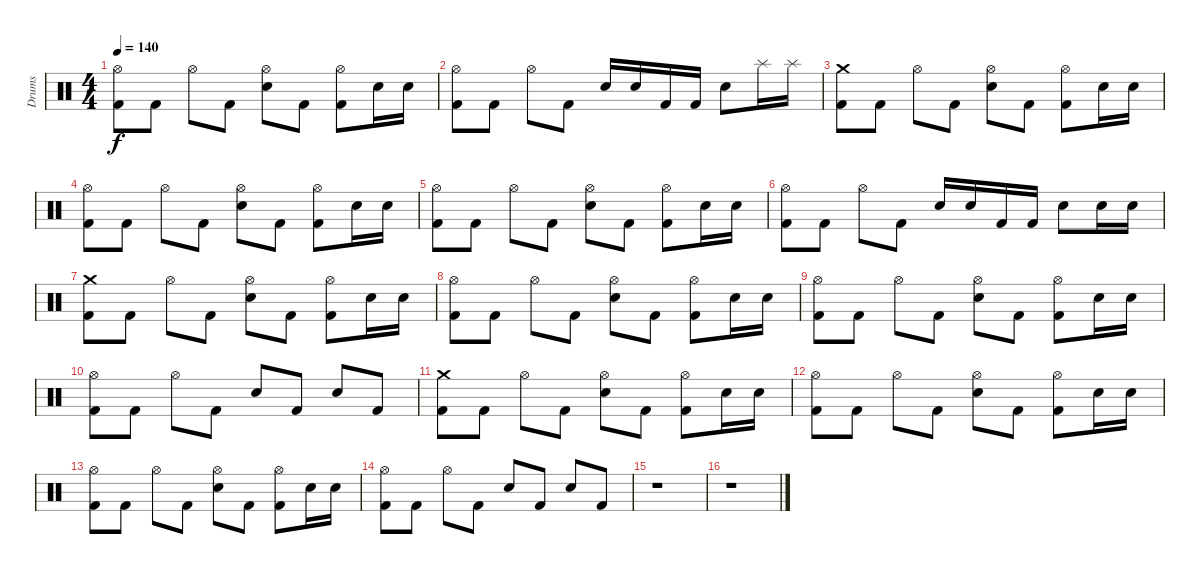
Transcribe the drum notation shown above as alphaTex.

\track ("Drums" "Drums") {instrument percussion}
\staff {score}
\articulation defaults
\ts (4 4)
\tempo 140
\clef neutral
\ks c
("Hi-Hat (open)" "Kick (hit) 2").8{dy f} "Kick (hit) 2".8 "Hi-Hat (open)".8 "Kick (hit) 2".8 ("Hi-Hat (open)" "Electric Snare (hit)").8 "Kick (hit) 2".8 ("Hi-Hat (open)" "Kick (hit) 2").8 "Electric Snare (hit)".16 "Electric Snare (hit)".16 |
("Hi-Hat (open)" "Kick (hit) 2").8 "Kick (hit) 2".8 "Hi-Hat (open)".8 "Kick (hit) 2".8 "Electric Snare (hit)".16 "Electric Snare (hit)".16 "Kick (hit) 2".16 "Kick (hit) 2".16 "Electric Snare (hit)".8 "Splash (hit)".16 "Splash (hit)".16 |
("Crash medium (hit)" "Kick (hit) 2").8 "Kick (hit) 2".8 "Hi-Hat (open)".8 "Kick (hit) 2".8 ("Hi-Hat (open)" "Electric Snare (hit)").8 "Kick (hit) 2".8 ("Hi-Hat (open)" "Kick (hit) 2").8 "Electric Snare (hit)".16 "Electric Snare (hit)".16 |
("Hi-Hat (open)" "Kick (hit) 2").8 "Kick (hit) 2".8 "Hi-Hat (open)".8 "Kick (hit) 2".8 ("Hi-Hat (open)" "Electric Snare (hit)").8 "Kick (hit) 2".8 ("Hi-Hat (open)" "Kick (hit) 2").8 "Electric Snare (hit)".16 "Electric Snare (hit)".16 |
("Hi-Hat (open)" "Kick (hit) 2").8 "Kick (hit) 2".8 "Hi-Hat (open)".8 "Kick (hit) 2".8 ("Hi-Hat (open)" "Electric Snare (hit)").8 "Kick (hit) 2".8 ("Hi-Hat (open)" "Kick (hit) 2").8 "Electric Snare (hit)".16 "Electric Snare (hit)".16 |
("Hi-Hat (open)" "Kick (hit) 2").8 "Kick (hit) 2".8 "Hi-Hat (open)".8 "Kick (hit) 2".8 "Electric Snare (hit)".16 "Electric Snare (hit)".16 "Kick (hit) 2".16 "Kick (hit) 2".16 "Electric Snare (hit)".8 "Electric Snare (hit)".16 "Electric Snare (hit)".16 |
("Crash medium (hit)" "Kick (hit) 2").8 "Kick (hit) 2".8 "Hi-Hat (open)".8 "Kick (hit) 2".8 ("Hi-Hat (open)" "Electric Snare (hit)").8 "Kick (hit) 2".8 ("Hi-Hat (open)" "Kick (hit) 2").8 "Electric Snare (hit)".16 "Electric Snare (hit)".16 |
("Hi-Hat (open)" "Kick (hit) 2").8 "Kick (hit) 2".8 "Hi-Hat (open)".8 "Kick (hit) 2".8 ("Hi-Hat (open)" "Electric Snare (hit)").8 "Kick (hit) 2".8 ("Hi-Hat (open)" "Kick (hit) 2").8 "Electric Snare (hit)".16 "Electric Snare (hit)".16 |
("Hi-Hat (open)" "Kick (hit) 2").8 "Kick (hit) 2".8 "Hi-Hat (open)".8 "Kick (hit) 2".8 ("Hi-Hat (open)" "Electric Snare (hit)").8 "Kick (hit) 2".8 ("Hi-Hat (open)" "Kick (hit) 2").8 "Electric Snare (hit)".16 "Electric Snare (hit)".16 |
("Hi-Hat (open)" "Kick (hit) 2").8 "Kick (hit) 2".8 "Hi-Hat (open)".8 "Kick (hit) 2".8 "Electric Snare (hit)".8 "Kick (hit) 2".8 "Electric Snare (hit)".8 "Kick (hit) 2".8 |
("Crash medium (hit)" "Kick (hit) 2").8 "Kick (hit) 2".8 "Hi-Hat (open)".8 "Kick (hit) 2".8 ("Hi-Hat (open)" "Electric Snare (hit)").8 "Kick (hit) 2".8 ("Hi-Hat (open)" "Kick (hit) 2").8 "Electric Snare (hit)".16 "Electric Snare (hit)".16 |
("Hi-Hat (open)" "Kick (hit) 2").8 "Kick (hit) 2".8 "Hi-Hat (open)".8 "Kick (hit) 2".8 ("Hi-Hat (open)" "Electric Snare (hit)").8 "Kick (hit) 2".8 ("Hi-Hat (open)" "Kick (hit) 2").8 "Electric Snare (hit)".16 "Electric Snare (hit)".16 |
("Hi-Hat (open)" "Kick (hit) 2").8 "Kick (hit) 2".8 "Hi-Hat (open)".8 "Kick (hit) 2".8 ("Hi-Hat (open)" "Electric Snare (hit)").8 "Kick (hit) 2".8 ("Hi-Hat (open)" "Kick (hit) 2").8 "Electric Snare (hit)".16 "Electric Snare (hit)".16 |
("Hi-Hat (open)" "Kick (hit) 2").8 "Kick (hit) 2".8 "Hi-Hat (open)".8 "Kick (hit) 2".8 "Electric Snare (hit)".8 "Kick (hit) 2".8 "Electric Snare (hit)".8 "Kick (hit) 2".8 |
r.1 |
r.1
